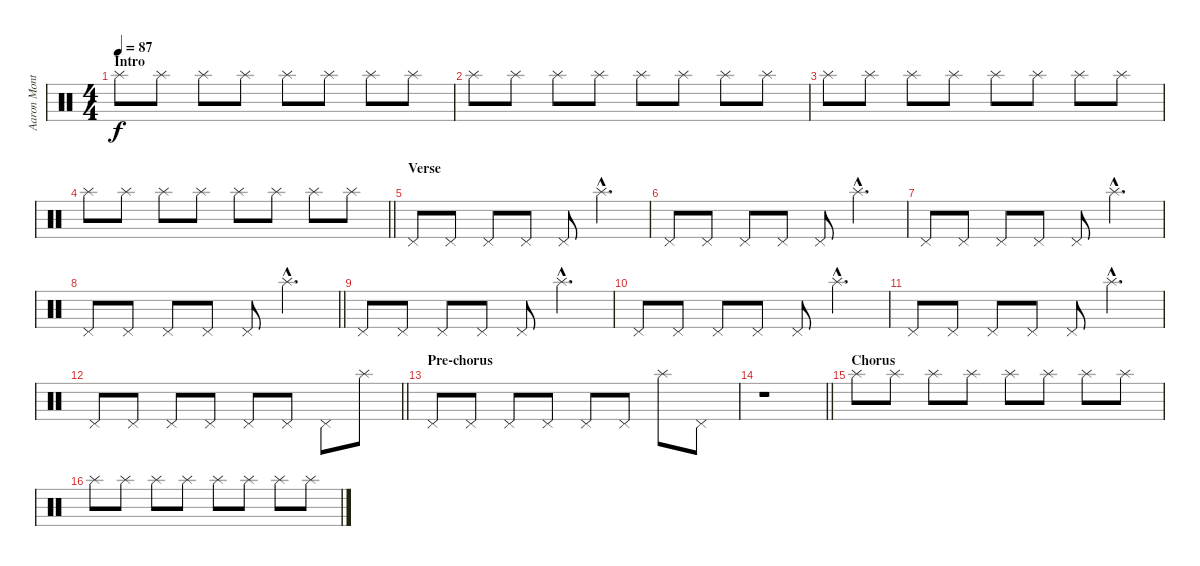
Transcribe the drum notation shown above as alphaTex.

\track ("Aaron Montgomery (Drums)" "Aaron Mont") {instrument percussion}
\staff {score}
\articulation defaults
\ts (4 4)
\section ("" "Intro")
\tempo 87
\clef neutral
\ks c "Splash (hit)".8{dy f} "Splash (hit)".8 "Splash (hit)".8 "Splash (hit)".8 "Splash (hit)".8 "Splash (hit)".8 "Splash (hit)".8 "Splash (hit)".8
|
"Splash (hit)".8 "Splash (hit)".8 "Splash (hit)".8 "Splash (hit)".8 "Splash (hit)".8 "Splash (hit)".8 "Splash (hit)".8 "Splash (hit)".8 |
"Splash (hit)".8 "Splash (hit)".8 "Splash (hit)".8 "Splash (hit)".8 "Splash (hit)".8 "Splash (hit)".8 "Splash (hit)".8 "Splash (hit)".8 |
\barLineRight lightlight "Splash (hit)".8 "Splash (hit)".8 "Splash (hit)".8 "Splash (hit)".8 "Splash (hit)".8 "Splash (hit)".8 "Splash (hit)".8 "Splash (hit)".8
|
\section ("" "Verse")
"Pedal Hi-Hat (hit)".8 "Pedal Hi-Hat (hit)".8 "Pedal Hi-Hat (hit)".8 "Pedal Hi-Hat (hit)".8 "Pedal Hi-Hat (hit)".8 "Splash (hit)"{hac}.4{d} |
"Pedal Hi-Hat (hit)".8 "Pedal Hi-Hat (hit)".8 "Pedal Hi-Hat (hit)".8 "Pedal Hi-Hat (hit)".8 "Pedal Hi-Hat (hit)".8 "Splash (hit)"{hac}.4{d} |
"Pedal Hi-Hat (hit)".8 "Pedal Hi-Hat (hit)".8 "Pedal Hi-Hat (hit)".8 "Pedal Hi-Hat (hit)".8 "Pedal Hi-Hat (hit)".8 "Splash (hit)"{hac}.4{d} |
\barLineRight lightlight "Pedal Hi-Hat (hit)".8 "Pedal Hi-Hat (hit)".8 "Pedal Hi-Hat (hit)".8 "Pedal Hi-Hat (hit)".8 "Pedal Hi-Hat (hit)".8 "Splash (hit)"{hac}.4{d}
|
"Pedal Hi-Hat (hit)".8 "Pedal Hi-Hat (hit)".8 "Pedal Hi-Hat (hit)".8 "Pedal Hi-Hat (hit)".8 "Pedal Hi-Hat (hit)".8 "Splash (hit)"{hac}.4{d} |
"Pedal Hi-Hat (hit)".8 "Pedal Hi-Hat (hit)".8 "Pedal Hi-Hat (hit)".8 "Pedal Hi-Hat (hit)".8 "Pedal Hi-Hat (hit)".8 "Splash (hit)"{hac}.4{d} |
"Pedal Hi-Hat (hit)".8 "Pedal Hi-Hat (hit)".8 "Pedal Hi-Hat (hit)".8 "Pedal Hi-Hat (hit)".8 "Pedal Hi-Hat (hit)".8 "Splash (hit)"{hac}.4{d} |
\barLineRight lightlight "Pedal Hi-Hat (hit)".8 "Pedal Hi-Hat (hit)".8 "Pedal Hi-Hat (hit)".8 "Pedal Hi-Hat (hit)".8 "Pedal Hi-Hat (hit)".8 "Pedal Hi-Hat (hit)".8 "Pedal Hi-Hat (hit)".8 "Splash (hit)".8
|
\section ("" "Pre-chorus")
"Pedal Hi-Hat (hit)".8 "Pedal Hi-Hat (hit)".8 "Pedal Hi-Hat (hit)".8 "Pedal Hi-Hat (hit)".8 "Pedal Hi-Hat (hit)".8 "Pedal Hi-Hat (hit)".8 "Splash (hit)".8 "Pedal Hi-Hat (hit)".8 |
\barLineRight lightlight
r.1 |
\section ("" "Chorus")
"Splash (hit)".8 "Splash (hit)".8 "Splash (hit)".8 "Splash (hit)".8 "Splash (hit)".8 "Splash (hit)".8 "Splash (hit)".8 "Splash (hit)".8 |
"Splash (hit)".8 "Splash (hit)".8 "Splash (hit)".8 "Splash (hit)".8 "Splash (hit)".8 "Splash (hit)".8 "Splash (hit)".8 "Splash (hit)".8
